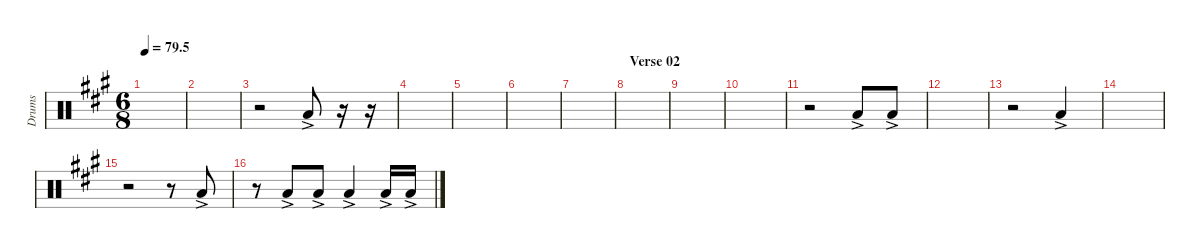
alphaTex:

\defaultSystemsLayout 4
\hideDynamics
\bracketExtendMode nobrackets
\otherSystemsTrackNameOrientation horizontal
\track ("Tom 03" "Drums") {instrument percussion}
\staff {score}
\articulation defaults
\ts (6 8)
\tempo
79.5
\accidentals auto
\clef neutral
\ottava regular
\simile none
\scale
0.333333
\ks a
|
\scale
0.333333 |
\scale
0.333333 r.2 "Low Tom (hit)"{ac acc forcenatural}.8 r.16 r.16 |
\scale
0.333333 |
\scale
0.333333 |
\scale
0.333333 |
\scale
0.333333 |
\section ("" "Verse 02")
\scale
0.333333 |
\scale
0.333333 |
\scale
0.333333 |
\scale
0.333333 r.2 "Low Tom (hit)"{ac acc forcenatural}.8 "Low Tom (hit)"{ac acc forcenatural}.8 |
\scale
0.333333 |
\scale
0.333333 r.2 "Low Tom (hit)"{ac acc forcenatural}.4 |
\scale
0.333333 |
\scale
0.333333 r.2 r.8 "Low Tom (hit)"{ac acc forcenatural}.8 |
\scale
0.333333 r.8 "Low Tom (hit)"{ac acc forcenatural}.8 "Low Tom (hit)"{ac acc forcenatural}.8 "Low Tom (hit)"{ac acc forcenatural}.4 "Low Tom (hit)"{ac acc forcenatural}.16 "Low Tom (hit)"{ac acc forcenatural}.16
